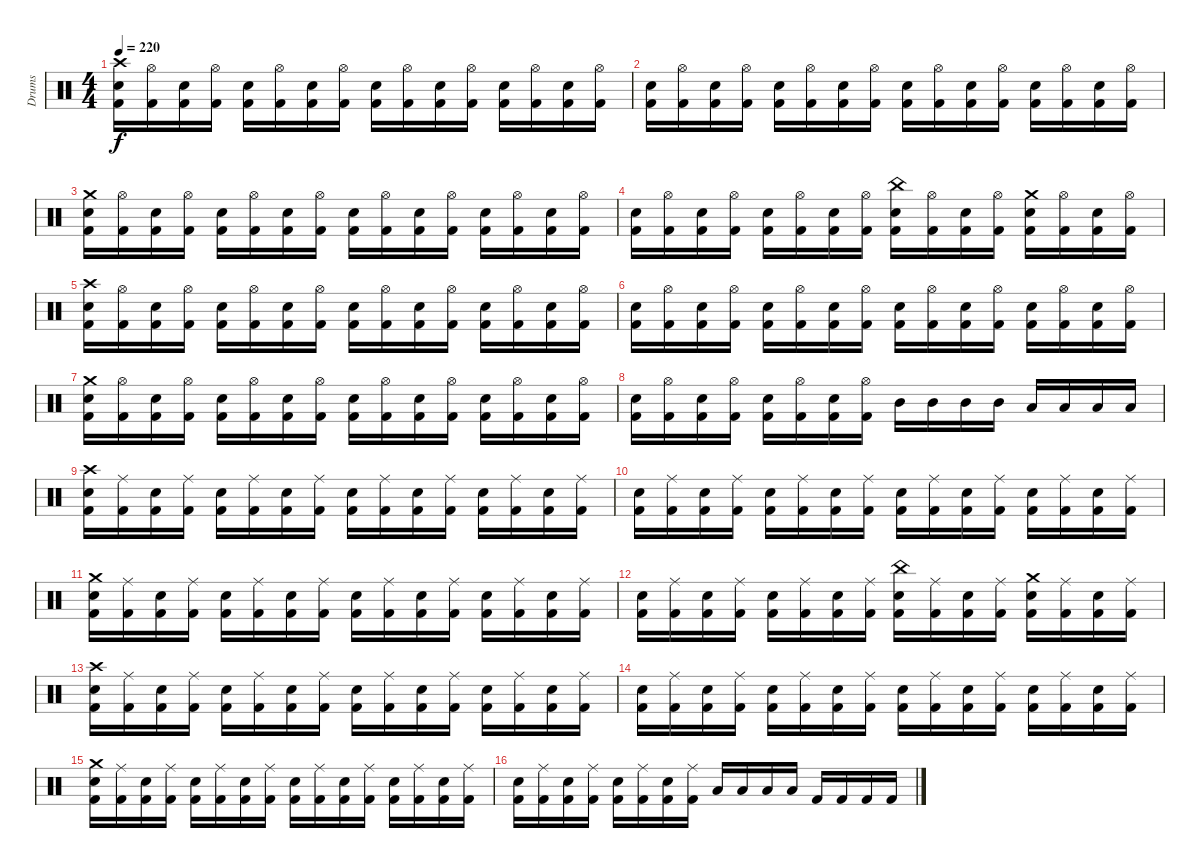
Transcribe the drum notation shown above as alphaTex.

\track ("Drums" "Drums") {instrument percussion}
\staff {score}
\articulation defaults
\ts (4 4)
\tempo 220
\clef neutral
\ks c
("Crash high (hit)" "Electric Snare (hit)" "Kick (hit) 2").16{dy f} ("Hi-Hat (open)" "Kick (hit) 2").16 ("Electric Snare (hit)" "Kick (hit) 2").16 ("Hi-Hat (open)" "Kick (hit) 2").16 ("Electric Snare (hit)" "Kick (hit) 2").16 ("Hi-Hat (open)" "Kick (hit) 2").16 ("Electric Snare (hit)" "Kick (hit) 2").16 ("Hi-Hat (open)" "Kick (hit) 2").16 ("Electric Snare (hit)" "Kick (hit) 2").16 ("Hi-Hat (open)" "Kick (hit) 2").16 ("Electric Snare (hit)" "Kick (hit) 2").16 ("Hi-Hat (open)" "Kick (hit) 2").16 ("Electric Snare (hit)" "Kick (hit) 2").16 ("Hi-Hat (open)" "Kick (hit) 2").16 ("Electric Snare (hit)" "Kick (hit) 2").16 ("Hi-Hat (open)" "Kick (hit) 2").16 |
("Electric Snare (hit)" "Kick (hit) 2").16 ("Hi-Hat (open)" "Kick (hit) 2").16 ("Electric Snare (hit)" "Kick (hit) 2").16 ("Hi-Hat (open)" "Kick (hit) 2").16 ("Electric Snare (hit)" "Kick (hit) 2").16 ("Hi-Hat (open)" "Kick (hit) 2").16 ("Electric Snare (hit)" "Kick (hit) 2").16 ("Hi-Hat (open)" "Kick (hit) 2").16 ("Electric Snare (hit)" "Kick (hit) 2").16 ("Hi-Hat (open)" "Kick (hit) 2").16 ("Electric Snare (hit)" "Kick (hit) 2").16 ("Hi-Hat (open)" "Kick (hit) 2").16 ("Electric Snare (hit)" "Kick (hit) 2").16 ("Hi-Hat (open)" "Kick (hit) 2").16 ("Electric Snare (hit)" "Kick (hit) 2").16 ("Hi-Hat (open)" "Kick (hit) 2").16 |
("Crash medium (hit)" "Electric Snare (hit)" "Kick (hit) 2").16 ("Hi-Hat (open)" "Kick (hit) 2").16 ("Electric Snare (hit)" "Kick (hit) 2").16 ("Hi-Hat (open)" "Kick (hit) 2").16 ("Electric Snare (hit)" "Kick (hit) 2").16 ("Hi-Hat (open)" "Kick (hit) 2").16 ("Electric Snare (hit)" "Kick (hit) 2").16 ("Hi-Hat (open)" "Kick (hit) 2").16 ("Electric Snare (hit)" "Kick (hit) 2").16 ("Hi-Hat (open)" "Kick (hit) 2").16 ("Electric Snare (hit)" "Kick (hit) 2").16 ("Hi-Hat (open)" "Kick (hit) 2").16 ("Electric Snare (hit)" "Kick (hit) 2").16 ("Hi-Hat (open)" "Kick (hit) 2").16 ("Electric Snare (hit)" "Kick (hit) 2").16 ("Hi-Hat (open)" "Kick (hit) 2").16 |
("Electric Snare (hit)" "Kick (hit) 2").16 ("Hi-Hat (open)" "Kick (hit) 2").16 ("Electric Snare (hit)" "Kick (hit) 2").16 ("Hi-Hat (open)" "Kick (hit) 2").16 ("Electric Snare (hit)" "Kick (hit) 2").16 ("Hi-Hat (open)" "Kick (hit) 2").16 ("Electric Snare (hit)" "Kick (hit) 2").16 ("Hi-Hat (open)" "Kick (hit) 2").16 ("China (hit)" "Electric Snare (hit)" "Kick (hit) 2").16 ("Hi-Hat (open)" "Kick (hit) 2").16 ("Electric Snare (hit)" "Kick (hit) 2").16 ("Hi-Hat (open)" "Kick (hit) 2").16 ("Crash medium (hit)" "Electric Snare (hit)" "Kick (hit) 2").16 ("Hi-Hat (open)" "Kick (hit) 2").16 ("Electric Snare (hit)" "Kick (hit) 2").16 ("Hi-Hat (open)" "Kick (hit) 2").16 |
("Crash high (hit)" "Electric Snare (hit)" "Kick (hit) 2").16 ("Hi-Hat (open)" "Kick (hit) 2").16 ("Electric Snare (hit)" "Kick (hit) 2").16 ("Hi-Hat (open)" "Kick (hit) 2").16 ("Electric Snare (hit)" "Kick (hit) 2").16 ("Hi-Hat (open)" "Kick (hit) 2").16 ("Electric Snare (hit)" "Kick (hit) 2").16 ("Hi-Hat (open)" "Kick (hit) 2").16 ("Electric Snare (hit)" "Kick (hit) 2").16 ("Hi-Hat (open)" "Kick (hit) 2").16 ("Electric Snare (hit)" "Kick (hit) 2").16 ("Hi-Hat (open)" "Kick (hit) 2").16 ("Electric Snare (hit)" "Kick (hit) 2").16 ("Hi-Hat (open)" "Kick (hit) 2").16 ("Electric Snare (hit)" "Kick (hit) 2").16 ("Hi-Hat (open)" "Kick (hit) 2").16 |
("Electric Snare (hit)" "Kick (hit) 2").16 ("Hi-Hat (open)" "Kick (hit) 2").16 ("Electric Snare (hit)" "Kick (hit) 2").16 ("Hi-Hat (open)" "Kick (hit) 2").16 ("Electric Snare (hit)" "Kick (hit) 2").16 ("Hi-Hat (open)" "Kick (hit) 2").16 ("Electric Snare (hit)" "Kick (hit) 2").16 ("Hi-Hat (open)" "Kick (hit) 2").16 ("Electric Snare (hit)" "Kick (hit) 2").16 ("Hi-Hat (open)" "Kick (hit) 2").16 ("Electric Snare (hit)" "Kick (hit) 2").16 ("Hi-Hat (open)" "Kick (hit) 2").16 ("Electric Snare (hit)" "Kick (hit) 2").16 ("Hi-Hat (open)" "Kick (hit) 2").16 ("Electric Snare (hit)" "Kick (hit) 2").16 ("Hi-Hat (open)" "Kick (hit) 2").16 |
("Crash medium (hit)" "Electric Snare (hit)" "Kick (hit) 2").16 ("Hi-Hat (open)" "Kick (hit) 2").16 ("Electric Snare (hit)" "Kick (hit) 2").16 ("Hi-Hat (open)" "Kick (hit) 2").16 ("Electric Snare (hit)" "Kick (hit) 2").16 ("Hi-Hat (open)" "Kick (hit) 2").16 ("Electric Snare (hit)" "Kick (hit) 2").16 ("Hi-Hat (open)" "Kick (hit) 2").16 ("Electric Snare (hit)" "Kick (hit) 2").16 ("Hi-Hat (open)" "Kick (hit) 2").16 ("Electric Snare (hit)" "Kick (hit) 2").16 ("Hi-Hat (open)" "Kick (hit) 2").16 ("Electric Snare (hit)" "Kick (hit) 2").16 ("Hi-Hat (open)" "Kick (hit) 2").16 ("Electric Snare (hit)" "Kick (hit) 2").16 ("Hi-Hat (open)" "Kick (hit) 2").16 |
("Electric Snare (hit)" "Kick (hit) 2").16 ("Hi-Hat (open)" "Kick (hit) 2").16 ("Electric Snare (hit)" "Kick (hit) 2").16 ("Hi-Hat (open)" "Kick (hit) 2").16 ("Electric Snare (hit)" "Kick (hit) 2").16 ("Hi-Hat (open)" "Kick (hit) 2").16 ("Electric Snare (hit)" "Kick (hit) 2").16 ("Hi-Hat (open)" "Kick (hit) 2").16 "Mid Tom (hit)".16 "Mid Tom (hit)".16 "Mid Tom (hit)".16 "Mid Tom (hit)".16 "Low Tom (hit)".16 "Low Tom (hit)".16 "Low Tom (hit)".16 "Low Tom (hit)".16 |
("Crash high (hit)" "Electric Snare (hit)" "Kick (hit) 2").16 ("Ride (middle)" "Kick (hit) 2").16 ("Electric Snare (hit)" "Kick (hit) 2").16 ("Ride (middle)" "Kick (hit) 2").16 ("Electric Snare (hit)" "Kick (hit) 2").16 ("Ride (middle)" "Kick (hit) 2").16 ("Electric Snare (hit)" "Kick (hit) 2").16 ("Ride (middle)" "Kick (hit) 2").16 ("Electric Snare (hit)" "Kick (hit) 2").16 ("Ride (middle)" "Kick (hit) 2").16 ("Electric Snare (hit)" "Kick (hit) 2").16 ("Ride (middle)" "Kick (hit) 2").16 ("Electric Snare (hit)" "Kick (hit) 2").16 ("Ride (middle)" "Kick (hit) 2").16 ("Electric Snare (hit)" "Kick (hit) 2").16 ("Ride (middle)" "Kick (hit) 2").16 |
("Electric Snare (hit)" "Kick (hit) 2").16 ("Ride (middle)" "Kick (hit) 2").16 ("Electric Snare (hit)" "Kick (hit) 2").16 ("Ride (middle)" "Kick (hit) 2").16 ("Electric Snare (hit)" "Kick (hit) 2").16 ("Ride (middle)" "Kick (hit) 2").16 ("Electric Snare (hit)" "Kick (hit) 2").16 ("Ride (middle)" "Kick (hit) 2").16 ("Electric Snare (hit)" "Kick (hit) 2").16 ("Ride (middle)" "Kick (hit) 2").16 ("Electric Snare (hit)" "Kick (hit) 2").16 ("Ride (middle)" "Kick (hit) 2").16 ("Electric Snare (hit)" "Kick (hit) 2").16 ("Ride (middle)" "Kick (hit) 2").16 ("Electric Snare (hit)" "Kick (hit) 2").16 ("Ride (middle)" "Kick (hit) 2").16 |
("Crash medium (hit)" "Electric Snare (hit)" "Kick (hit) 2").16 ("Ride (middle)" "Kick (hit) 2").16 ("Electric Snare (hit)" "Kick (hit) 2").16 ("Ride (middle)" "Kick (hit) 2").16 ("Electric Snare (hit)" "Kick (hit) 2").16 ("Ride (middle)" "Kick (hit) 2").16 ("Electric Snare (hit)" "Kick (hit) 2").16 ("Ride (middle)" "Kick (hit) 2").16 ("Electric Snare (hit)" "Kick (hit) 2").16 ("Ride (middle)" "Kick (hit) 2").16 ("Electric Snare (hit)" "Kick (hit) 2").16 ("Ride (middle)" "Kick (hit) 2").16 ("Electric Snare (hit)" "Kick (hit) 2").16 ("Ride (middle)" "Kick (hit) 2").16 ("Electric Snare (hit)" "Kick (hit) 2").16 ("Ride (middle)" "Kick (hit) 2").16 |
("Electric Snare (hit)" "Kick (hit) 2").16 ("Ride (middle)" "Kick (hit) 2").16 ("Electric Snare (hit)" "Kick (hit) 2").16 ("Ride (middle)" "Kick (hit) 2").16 ("Electric Snare (hit)" "Kick (hit) 2").16 ("Ride (middle)" "Kick (hit) 2").16 ("Electric Snare (hit)" "Kick (hit) 2").16 ("Ride (middle)" "Kick (hit) 2").16 ("China (hit)" "Electric Snare (hit)" "Kick (hit) 2").16 ("Ride (middle)" "Kick (hit) 2").16 ("Electric Snare (hit)" "Kick (hit) 2").16 ("Ride (middle)" "Kick (hit) 2").16 ("Crash medium (hit)" "Electric Snare (hit)" "Kick (hit) 2").16 ("Ride (middle)" "Kick (hit) 2").16 ("Electric Snare (hit)" "Kick (hit) 2").16 ("Ride (middle)" "Kick (hit) 2").16 |
("Crash high (hit)" "Electric Snare (hit)" "Kick (hit) 2").16 ("Ride (middle)" "Kick (hit) 2").16 ("Electric Snare (hit)" "Kick (hit) 2").16 ("Ride (middle)" "Kick (hit) 2").16 ("Electric Snare (hit)" "Kick (hit) 2").16 ("Ride (middle)" "Kick (hit) 2").16 ("Electric Snare (hit)" "Kick (hit) 2").16 ("Ride (middle)" "Kick (hit) 2").16 ("Electric Snare (hit)" "Kick (hit) 2").16 ("Ride (middle)" "Kick (hit) 2").16 ("Electric Snare (hit)" "Kick (hit) 2").16 ("Ride (middle)" "Kick (hit) 2").16 ("Electric Snare (hit)" "Kick (hit) 2").16 ("Ride (middle)" "Kick (hit) 2").16 ("Electric Snare (hit)" "Kick (hit) 2").16 ("Ride (middle)" "Kick (hit) 2").16 |
("Electric Snare (hit)" "Kick (hit) 2").16 ("Ride (middle)" "Kick (hit) 2").16 ("Electric Snare (hit)" "Kick (hit) 2").16 ("Ride (middle)" "Kick (hit) 2").16 ("Electric Snare (hit)" "Kick (hit) 2").16 ("Ride (middle)" "Kick (hit) 2").16 ("Electric Snare (hit)" "Kick (hit) 2").16 ("Ride (middle)" "Kick (hit) 2").16 ("Electric Snare (hit)" "Kick (hit) 2").16 ("Ride (middle)" "Kick (hit) 2").16 ("Electric Snare (hit)" "Kick (hit) 2").16 ("Ride (middle)" "Kick (hit) 2").16 ("Electric Snare (hit)" "Kick (hit) 2").16 ("Ride (middle)" "Kick (hit) 2").16 ("Electric Snare (hit)" "Kick (hit) 2").16 ("Ride (middle)" "Kick (hit) 2").16 |
("Crash medium (hit)" "Electric Snare (hit)" "Kick (hit) 2").16 ("Ride (middle)" "Kick (hit) 2").16 ("Electric Snare (hit)" "Kick (hit) 2").16 ("Ride (middle)" "Kick (hit) 2").16 ("Electric Snare (hit)" "Kick (hit) 2").16 ("Ride (middle)" "Kick (hit) 2").16 ("Electric Snare (hit)" "Kick (hit) 2").16 ("Ride (middle)" "Kick (hit) 2").16 ("Electric Snare (hit)" "Kick (hit) 2").16 ("Ride (middle)" "Kick (hit) 2").16 ("Electric Snare (hit)" "Kick (hit) 2").16 ("Ride (middle)" "Kick (hit) 2").16 ("Electric Snare (hit)" "Kick (hit) 2").16 ("Ride (middle)" "Kick (hit) 2").16 ("Electric Snare (hit)" "Kick (hit) 2").16 ("Ride (middle)" "Kick (hit) 2").16 |
("Electric Snare (hit)" "Kick (hit) 2").16 ("Ride (middle)" "Kick (hit) 2").16 ("Electric Snare (hit)" "Kick (hit) 2").16 ("Ride (middle)" "Kick (hit) 2").16 ("Electric Snare (hit)" "Kick (hit) 2").16 ("Ride (middle)" "Kick (hit) 2").16 ("Electric Snare (hit)" "Kick (hit) 2").16 ("Ride (middle)" "Kick (hit) 2").16 "Low Tom (hit)".16 "Low Tom (hit)".16 "Low Tom (hit)".16 "Low Tom (hit)".16 "Kick (hit) 2".16 "Kick (hit) 2".16 "Kick (hit) 2".16 "Kick (hit) 2".16
